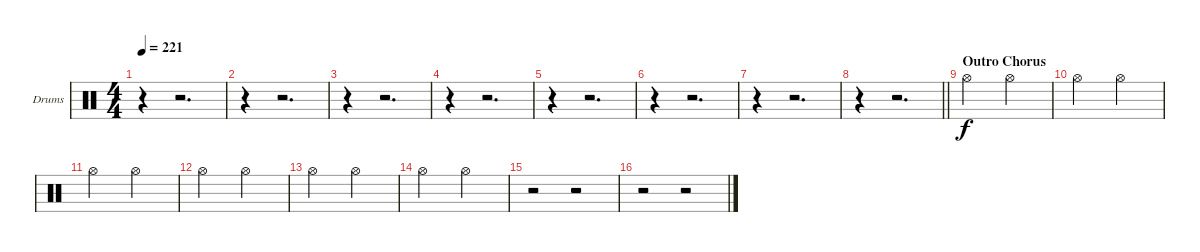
\bracketExtendMode groupsimilarinstruments
\firstSystemTrackNameOrientation horizontal
\otherSystemsTrackNameOrientation horizontal
\track ("Drumkit" "Drums") {instrument percussion}
\staff {score}
\articulation defaults
\ts (4 4)
\tempo 221
\clef neutral
\ks c
r.4{dy f} r.2{d} |
r.4 r.2{d} |
r.4 r.2{d} |
r.4 r.2{d} |
r.4 r.2{d} |
r.4 r.2{d} |
r.4 r.2{d} |
\barLineRight lightlight
r.4 r.2{d} |
\section ("" "Outro Chorus")
"Hi-Hat (open)".2 "Hi-Hat (open)".2 |
"Hi-Hat (open)".2 "Hi-Hat (open)".2 |
"Hi-Hat (open)".2 "Hi-Hat (open)".2 |
"Hi-Hat (open)".2 "Hi-Hat (open)".2 |
"Hi-Hat (open)".2 "Hi-Hat (open)".2 |
"Hi-Hat (open)".2 "Hi-Hat (open)".2 |
r.2 r.2 |
r.2 r.2
